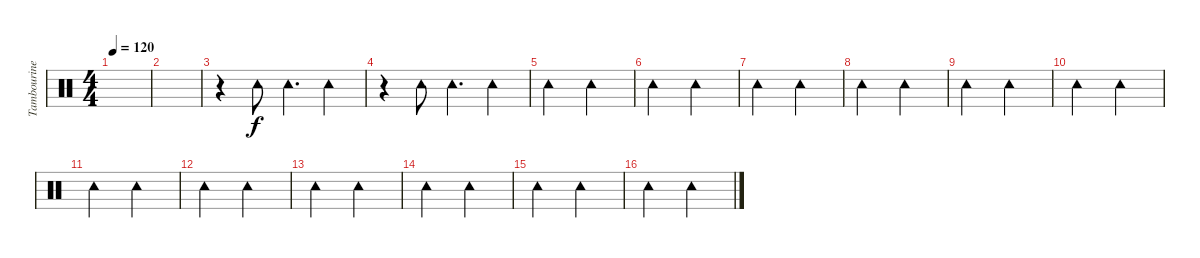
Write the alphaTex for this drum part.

\track ("Tambourine" "Tambourine") {instrument percussion}
\staff {score}
\articulation defaults
\ts (4 4)
\tempo 120
\clef neutral
\ks c
|
|
r.4 "Tambourine (hit)".8 "Tambourine (hit)".4{d} "Tambourine (hit)".4 |
r.4 "Tambourine (hit)".8 "Tambourine (hit)".4{d} "Tambourine (hit)".4 |
"Tambourine (hit)".2 "Tambourine (hit)".2 |
"Tambourine (hit)".2 "Tambourine (hit)".2 |
"Tambourine (hit)".2 "Tambourine (hit)".2 |
"Tambourine (hit)".2 "Tambourine (hit)".2 |
"Tambourine (hit)".2 "Tambourine (hit)".2 |
"Tambourine (hit)".2 "Tambourine (hit)".2 |
"Tambourine (hit)".2 "Tambourine (hit)".2 |
"Tambourine (hit)".2 "Tambourine (hit)".2 |
"Tambourine (hit)".2 "Tambourine (hit)".2 |
"Tambourine (hit)".2 "Tambourine (hit)".2 |
"Tambourine (hit)".2 "Tambourine (hit)".2 |
"Tambourine (hit)".2 "Tambourine (hit)".2
